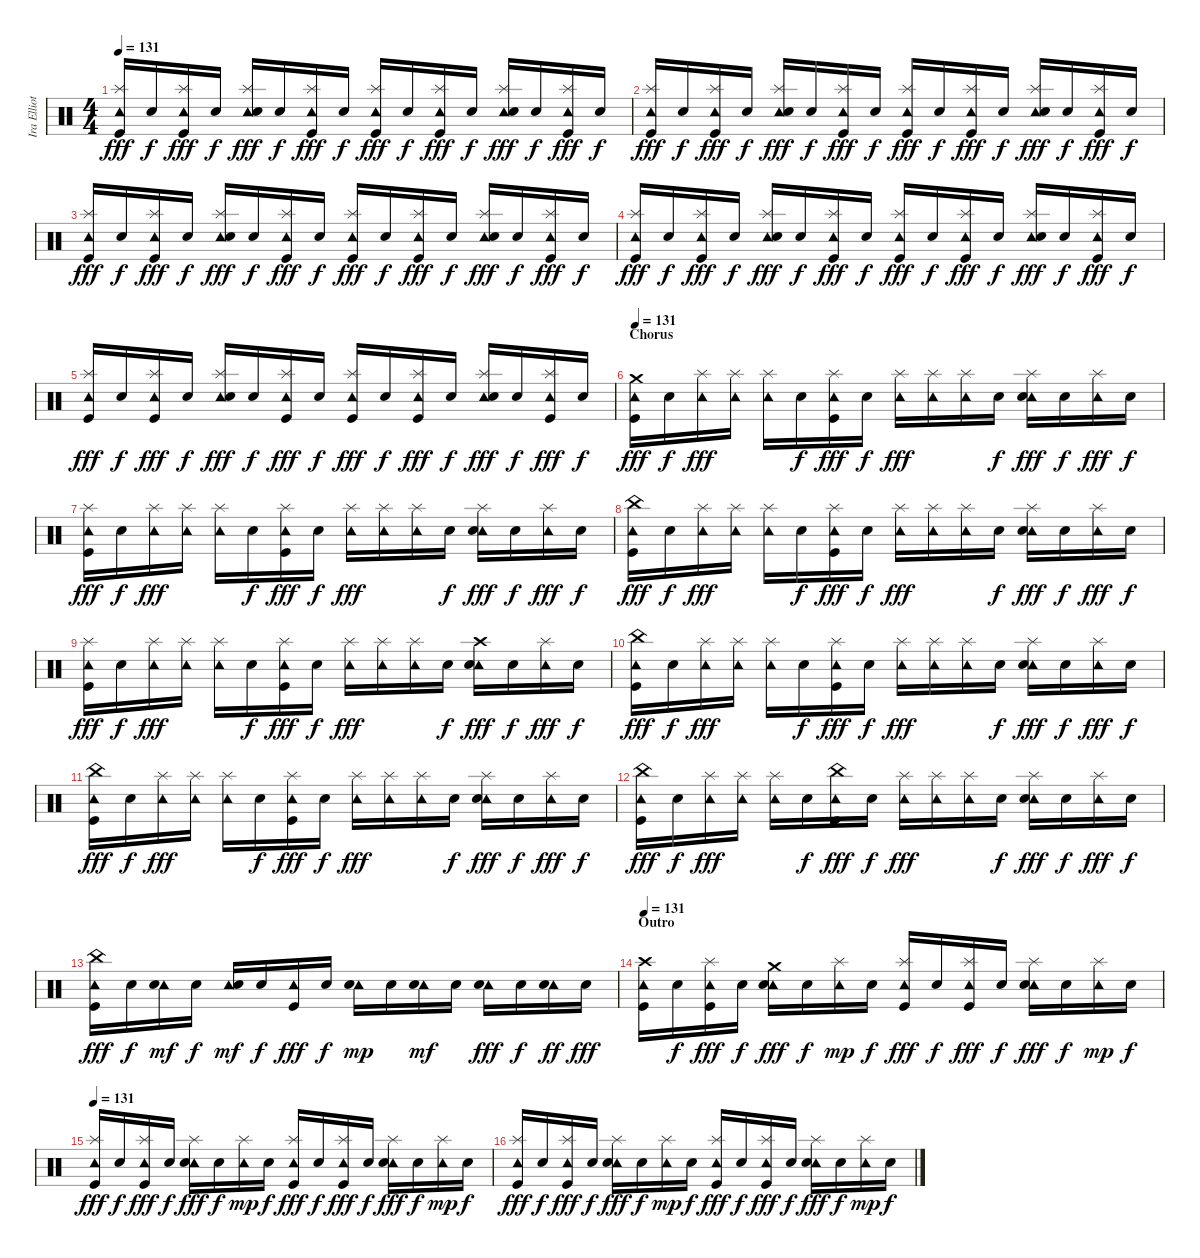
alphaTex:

\track ("Ira Elliot - Drums" "Ira Elliot") {instrument percussion}
\staff {score}
\articulation defaults
\ts (4 4)
\tempo 131
\clef neutral
\ks c
("Tambourine (hit)" "Splash (hit)" "Kick (hit)").16{dy fff} "Snare (hit)".16{dy f} ("Tambourine (hit)" "Splash (hit)" "Kick (hit)").16{dy fff} "Snare (hit)".16{dy f} ("Tambourine (hit)" "Splash (hit)" "Electric Snare (hit)").16{dy fff} "Snare (hit)".16{dy f} ("Tambourine (hit)" "Splash (hit)" "Kick (hit)").16{dy fff} "Snare (hit)".16{dy f} ("Tambourine (hit)" "Splash (hit)" "Kick (hit)").16{dy fff} "Snare (hit)".16{dy f} ("Tambourine (hit)" "Splash (hit)" "Kick (hit)").16{dy fff} "Snare (hit)".16{dy f} ("Tambourine (hit)" "Splash (hit)" "Electric Snare (hit)").16{dy fff} "Snare (hit)".16{dy f} ("Tambourine (hit)" "Splash (hit)" "Kick (hit)").16{dy fff} "Snare (hit)".16{dy f} |
("Tambourine (hit)" "Splash (hit)" "Kick (hit)").16{dy fff} "Snare (hit)".16{dy f} ("Tambourine (hit)" "Splash (hit)" "Kick (hit)").16{dy fff} "Snare (hit)".16{dy f} ("Tambourine (hit)" "Splash (hit)" "Electric Snare (hit)").16{dy fff} "Snare (hit)".16{dy f} ("Tambourine (hit)" "Splash (hit)" "Kick (hit)").16{dy fff} "Snare (hit)".16{dy f} ("Tambourine (hit)" "Splash (hit)" "Kick (hit)").16{dy fff} "Snare (hit)".16{dy f} ("Tambourine (hit)" "Splash (hit)" "Kick (hit)").16{dy fff} "Snare (hit)".16{dy f} ("Tambourine (hit)" "Splash (hit)" "Electric Snare (hit)").16{dy fff} "Snare (hit)".16{dy f} ("Tambourine (hit)" "Splash (hit)" "Kick (hit)").16{dy fff} "Snare (hit)".16{dy f} |
("Tambourine (hit)" "Splash (hit)" "Kick (hit)").16{dy fff} "Snare (hit)".16{dy f} ("Tambourine (hit)" "Splash (hit)" "Kick (hit)").16{dy fff} "Snare (hit)".16{dy f} ("Tambourine (hit)" "Splash (hit)" "Electric Snare (hit)").16{dy fff} "Snare (hit)".16{dy f} ("Tambourine (hit)" "Splash (hit)" "Kick (hit)").16{dy fff} "Snare (hit)".16{dy f} ("Tambourine (hit)" "Splash (hit)" "Kick (hit)").16{dy fff} "Snare (hit)".16{dy f} ("Tambourine (hit)" "Splash (hit)" "Kick (hit)").16{dy fff} "Snare (hit)".16{dy f} ("Tambourine (hit)" "Splash (hit)" "Electric Snare (hit)").16{dy fff} "Snare (hit)".16{dy f} ("Tambourine (hit)" "Splash (hit)" "Kick (hit)").16{dy fff} "Snare (hit)".16{dy f} |
("Tambourine (hit)" "Splash (hit)" "Kick (hit)").16{dy fff} "Snare (hit)".16{dy f} ("Tambourine (hit)" "Splash (hit)" "Kick (hit)").16{dy fff} "Snare (hit)".16{dy f} ("Tambourine (hit)" "Splash (hit)" "Electric Snare (hit)").16{dy fff} "Snare (hit)".16{dy f} ("Tambourine (hit)" "Splash (hit)" "Kick (hit)").16{dy fff} "Snare (hit)".16{dy f} ("Tambourine (hit)" "Splash (hit)" "Kick (hit)").16{dy fff} "Snare (hit)".16{dy f} ("Tambourine (hit)" "Splash (hit)" "Kick (hit)").16{dy fff} "Snare (hit)".16{dy f} ("Tambourine (hit)" "Splash (hit)" "Electric Snare (hit)").16{dy fff} "Snare (hit)".16{dy f} ("Tambourine (hit)" "Splash (hit)" "Kick (hit)").16{dy fff} "Snare (hit)".16{dy f} |
("Tambourine (hit)" "Splash (hit)" "Kick (hit)").16{dy fff} "Snare (hit)".16{dy f} ("Tambourine (hit)" "Splash (hit)" "Kick (hit)").16{dy fff} "Snare (hit)".16{dy f} ("Tambourine (hit)" "Splash (hit)" "Electric Snare (hit)").16{dy fff} "Snare (hit)".16{dy f} ("Tambourine (hit)" "Splash (hit)" "Kick (hit)").16{dy fff} "Snare (hit)".16{dy f} ("Tambourine (hit)" "Splash (hit)" "Kick (hit)").16{dy fff} "Snare (hit)".16{dy f} ("Tambourine (hit)" "Splash (hit)" "Kick (hit)").16{dy fff} "Snare (hit)".16{dy f} ("Tambourine (hit)" "Splash (hit)" "Electric Snare (hit)").16{dy fff} "Snare (hit)".16{dy f} ("Tambourine (hit)" "Splash (hit)" "Kick (hit)").16{dy fff} "Snare (hit)".16{dy f} |
\section ("" "Chorus")
\tempo 131
("Crash medium (hit)" "Tambourine (hit)" "Kick (hit)").16{dy fff volume 16 balance 8} "Snare (hit)".16{dy f} ("Splash (hit)" "Tambourine (hit)").16{dy fff} ("Splash (hit)" "Tambourine (hit)").16 ("Splash (hit)" "Tambourine (hit)").16 "Snare (hit)".16{dy f} ("Splash (hit)" "Tambourine (hit)" "Kick (hit)").16{dy fff} "Snare (hit)".16{dy f} ("Splash (hit)" "Tambourine (hit)").16{dy fff} ("Splash (hit)" "Tambourine (hit)").16 ("Splash (hit)" "Tambourine (hit)").16 "Snare (hit)".16{dy f} ("Splash (hit)" "Tambourine (hit)" "Electric Snare (hit)").16{dy fff} "Snare (hit)".16{dy f} ("Splash (hit)" "Tambourine (hit)").16{dy fff} "Snare (hit)".16{dy f} |
("Splash (hit)" "Tambourine (hit)" "Kick (hit)").16{dy fff} "Snare (hit)".16{dy f} ("Splash (hit)" "Tambourine (hit)").16{dy fff} ("Splash (hit)" "Tambourine (hit)").16 ("Splash (hit)" "Tambourine (hit)").16 "Snare (hit)".16{dy f} ("Splash (hit)" "Tambourine (hit)" "Kick (hit)").16{dy fff} "Snare (hit)".16{dy f} ("Splash (hit)" "Tambourine (hit)").16{dy fff} ("Splash (hit)" "Tambourine (hit)").16 ("Splash (hit)" "Tambourine (hit)").16 "Snare (hit)".16{dy f} ("Splash (hit)" "Tambourine (hit)" "Electric Snare (hit)").16{dy fff} "Snare (hit)".16{dy f} ("Splash (hit)" "Tambourine (hit)").16{dy fff} "Snare (hit)".16{dy f} |
("China (hit)" "Tambourine (hit)" "Kick (hit)").16{dy fff} "Snare (hit)".16{dy f} ("Splash (hit)" "Tambourine (hit)").16{dy fff} ("Splash (hit)" "Tambourine (hit)").16 ("Splash (hit)" "Tambourine (hit)").16 "Snare (hit)".16{dy f} ("Splash (hit)" "Tambourine (hit)" "Kick (hit)").16{dy fff} "Snare (hit)".16{dy f} ("Splash (hit)" "Tambourine (hit)").16{dy fff} ("Splash (hit)" "Tambourine (hit)").16 ("Splash (hit)" "Tambourine (hit)").16 "Snare (hit)".16{dy f} ("Splash (hit)" "Tambourine (hit)" "Electric Snare (hit)").16{dy fff} "Snare (hit)".16{dy f} ("Splash (hit)" "Tambourine (hit)").16{dy fff} "Snare (hit)".16{dy f} |
("Splash (hit)" "Tambourine (hit)" "Kick (hit)").16{dy fff} "Snare (hit)".16{dy f} ("Splash (hit)" "Tambourine (hit)").16{dy fff} ("Splash (hit)" "Tambourine (hit)").16 ("Splash (hit)" "Tambourine (hit)").16 "Snare (hit)".16{dy f} ("Splash (hit)" "Tambourine (hit)" "Kick (hit)").16{dy fff} "Snare (hit)".16{dy f} ("Splash (hit)" "Tambourine (hit)").16{dy fff} ("Splash (hit)" "Tambourine (hit)").16 ("Splash (hit)" "Tambourine (hit)").16 "Snare (hit)".16{dy f} ("Crash high (hit)" "Tambourine (hit)" "Electric Snare (hit)").16{dy fff} "Snare (hit)".16{dy f} ("Splash (hit)" "Tambourine (hit)").16{dy fff} "Snare (hit)".16{dy f} |
("China (hit)" "Tambourine (hit)" "Kick (hit)").16{dy fff} "Snare (hit)".16{dy f} ("Splash (hit)" "Tambourine (hit)").16{dy fff} ("Splash (hit)" "Tambourine (hit)").16 ("Splash (hit)" "Tambourine (hit)").16 "Snare (hit)".16{dy f} ("Splash (hit)" "Tambourine (hit)" "Kick (hit)").16{dy fff} "Snare (hit)".16{dy f} ("Splash (hit)" "Tambourine (hit)").16{dy fff} ("Splash (hit)" "Tambourine (hit)").16 ("Splash (hit)" "Tambourine (hit)").16 "Snare (hit)".16{dy f} ("Splash (hit)" "Tambourine (hit)" "Electric Snare (hit)").16{dy fff} "Snare (hit)".16{dy f} ("Splash (hit)" "Tambourine (hit)").16{dy fff} "Snare (hit)".16{dy f} |
("China (hit)" "Tambourine (hit)" "Kick (hit)").16{dy fff} "Snare (hit)".16{dy f} ("Splash (hit)" "Tambourine (hit)").16{dy fff} ("Splash (hit)" "Tambourine (hit)").16 ("Splash (hit)" "Tambourine (hit)").16 "Snare (hit)".16{dy f} ("Splash (hit)" "Tambourine (hit)" "Kick (hit)").16{dy fff} "Snare (hit)".16{dy f} ("Splash (hit)" "Tambourine (hit)").16{dy fff} ("Splash (hit)" "Tambourine (hit)").16 ("Splash (hit)" "Tambourine (hit)").16 "Snare (hit)".16{dy f} ("Splash (hit)" "Tambourine (hit)" "Electric Snare (hit)").16{dy fff} "Snare (hit)".16{dy f} ("Splash (hit)" "Tambourine (hit)").16{dy fff} "Snare (hit)".16{dy f} |
("China (hit)" "Tambourine (hit)" "Kick (hit)").16{dy fff} "Snare (hit)".16{dy f} ("Splash (hit)" "Tambourine (hit)").16{dy fff} ("Splash (hit)" "Tambourine (hit)").16 ("Splash (hit)" "Tambourine (hit)").16 "Snare (hit)".16{dy f} ("China (hit)" "Tambourine (hit)" "Kick (hit)").16{dy fff} "Snare (hit)".16{dy f} ("Splash (hit)" "Tambourine (hit)").16{dy fff} ("Splash (hit)" "Tambourine (hit)").16 ("Splash (hit)" "Tambourine (hit)").16 "Snare (hit)".16{dy f} ("Splash (hit)" "Tambourine (hit)" "Electric Snare (hit)").16{dy fff} "Snare (hit)".16{dy f} ("Splash (hit)" "Tambourine (hit)").16{dy fff} "Snare (hit)".16{dy f} |
("China (hit)" "Tambourine (hit)" "Kick (hit)").16{dy fff} "Snare (hit)".16{dy f} ("Tambourine (hit)" "Electric Snare (hit)").16{dy mf} "Snare (hit)".16{dy f} ("Tambourine (hit)" "Electric Snare (hit)").16{dy mf} "Electric Snare (hit)".16{dy f} ("Tambourine (hit)" "Kick (hit)").16{dy fff} "Snare (hit)".16{dy f} ("Tambourine (hit)" "Electric Snare (hit)").16{dy mp} "Electric Snare (hit)".16 ("Tambourine (hit)" "Electric Snare (hit)").16{dy mf} "Electric Snare (hit)".16 ("Tambourine (hit)" "Electric Snare (hit)").16{dy fff} "Electric Snare (hit)".16{dy f} ("Tambourine (hit)" "Electric Snare (hit)").16{dy ff} "Electric Snare (hit)".16{dy fff} |
\section ("" "Outro")
\tempo 131
("Tambourine (hit)" "Crash high (hit)" "Kick (hit)").16{volume 16 balance 8} "Snare (hit)".16{dy f} ("Tambourine (hit)" "Splash (hit)" "Kick (hit)").16{dy fff} "Snare (hit)".16{dy f} ("Tambourine (hit)" "Crash medium (hit)" "Electric Snare (hit)").16{dy fff} "Snare (hit)".16{dy f} ("Tambourine (hit)" "Splash (hit)").16{dy mp} "Snare (hit)".16{dy f} ("Tambourine (hit)" "Splash (hit)" "Kick (hit)").16{dy fff} "Snare (hit)".16{dy f} ("Tambourine (hit)" "Splash (hit)" "Kick (hit)").16{dy fff} "Snare (hit)".16{dy f} ("Tambourine (hit)" "Splash (hit)" "Electric Snare (hit)").16{dy fff} "Snare (hit)".16{dy f} ("Tambourine (hit)" "Splash (hit)").16{dy mp} "Snare (hit)".16{dy f} |
\tempo 131
("Tambourine (hit)" "Splash (hit)" "Kick (hit)").16{dy fff volume 16 balance 8} "Snare (hit)".16{dy f} ("Tambourine (hit)" "Splash (hit)" "Kick (hit)").16{dy fff} "Snare (hit)".16{dy f} ("Tambourine (hit)" "Splash (hit)" "Electric Snare (hit)").16{dy fff} "Snare (hit)".16{dy f} ("Tambourine (hit)" "Splash (hit)").16{dy mp} "Snare (hit)".16{dy f} ("Tambourine (hit)" "Splash (hit)" "Kick (hit)").16{dy fff} "Snare (hit)".16{dy f} ("Tambourine (hit)" "Splash (hit)" "Kick (hit)").16{dy fff} "Snare (hit)".16{dy f} ("Tambourine (hit)" "Splash (hit)" "Electric Snare (hit)").16{dy fff} "Snare (hit)".16{dy f} ("Tambourine (hit)" "Splash (hit)").16{dy mp} "Snare (hit)".16{dy f} |
("Tambourine (hit)" "Splash (hit)" "Kick (hit)").16{dy fff} "Snare (hit)".16{dy f} ("Tambourine (hit)" "Splash (hit)" "Kick (hit)").16{dy fff} "Snare (hit)".16{dy f} ("Tambourine (hit)" "Splash (hit)" "Electric Snare (hit)").16{dy fff} "Snare (hit)".16{dy f} ("Tambourine (hit)" "Splash (hit)").16{dy mp} "Snare (hit)".16{dy f} ("Tambourine (hit)" "Splash (hit)" "Kick (hit)").16{dy fff} "Snare (hit)".16{dy f} ("Tambourine (hit)" "Splash (hit)" "Kick (hit)").16{dy fff} "Snare (hit)".16{dy f} ("Tambourine (hit)" "Splash (hit)" "Electric Snare (hit)").16{dy fff} "Snare (hit)".16{dy f} ("Tambourine (hit)" "Splash (hit)").16{dy mp} "Snare (hit)".16{dy f}
